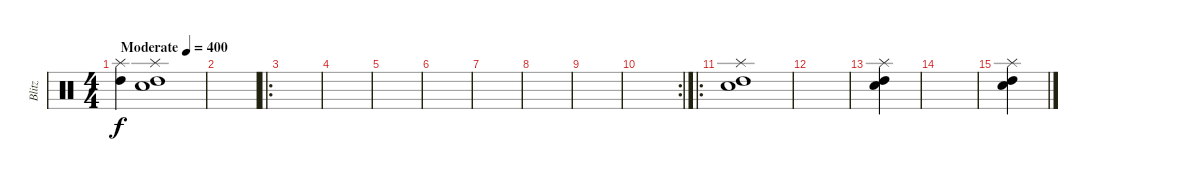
\track ("Blitz" "Blitz") {instrument percussion}
\staff {score}
\articulation defaults
\ts (4 4)
\tempo (400 "Moderate")
\clef neutral
\ks c
("Splash (hit)" "High Tom (hit)").4{dy f} ("Splash (hit)" "Electric Snare (hit)" "High Tom (hit)").1 |
|
\ro
|
|
|
|
|
|
|
\rc 2
|
\ro
("Splash (hit)" "Electric Snare (hit)" "High Tom (hit)").1 |
|
("Splash (hit)" "Electric Snare (hit)" "High Tom (hit)").4 |
|
("Splash (hit)" "Electric Snare (hit)" "High Tom (hit)").4
